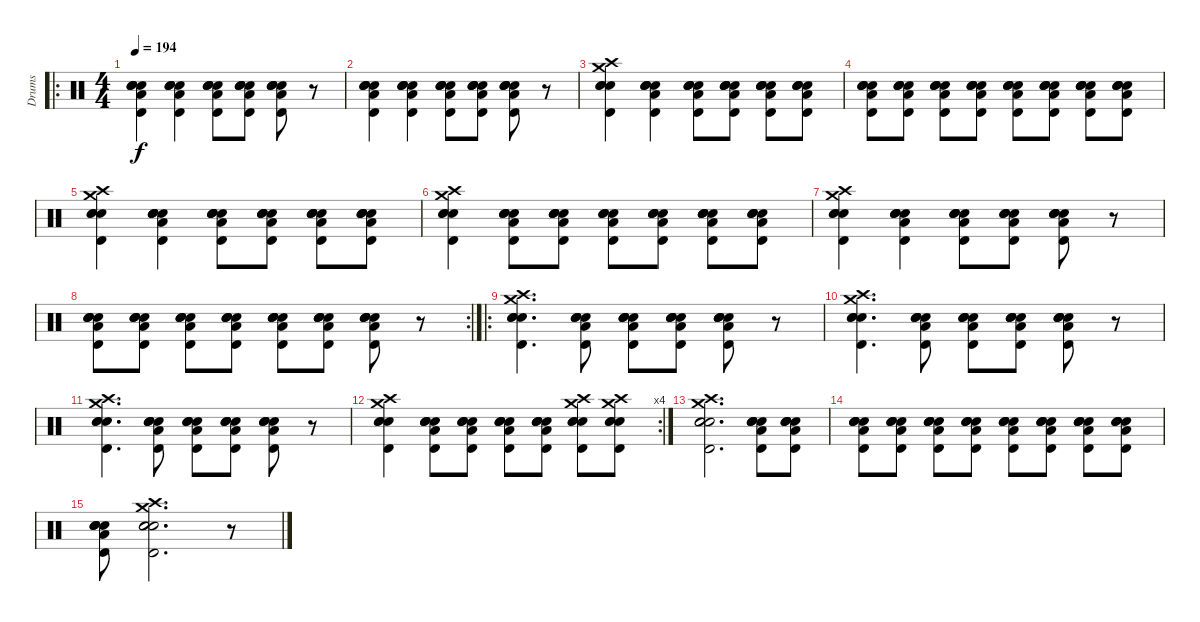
\track ("Drums" "Drums") {instrument percussion}
\staff {score}
\articulation defaults
\ro
\ts (4 4)
\tempo 194
\clef neutral
\ks c
("Snare (hit) 2" "Snare (hit) 2" "Timbale high (hit)" "Snare (hit) 2" "Snare (hit) 2" "Low Floor Tom (hit)").4{dy f} ("Snare (hit) 2" "Snare (hit) 2" "Timbale high (hit)" "Snare (hit) 2" "Snare (hit) 2" "Low Floor Tom (hit)").4 ("Snare (hit) 2" "Snare (hit) 2" "Timbale high (hit)" "Snare (hit) 2" "Snare (hit) 2" "Low Floor Tom (hit)").8 ("Snare (hit) 2" "Snare (hit) 2" "Timbale high (hit)" "Snare (hit) 2" "Snare (hit) 2" "Low Floor Tom (hit)").8 ("Snare (hit) 2" "Snare (hit) 2" "Timbale high (hit)" "Snare (hit) 2" "Snare (hit) 2" "Low Floor Tom (hit)").8 r.8 |
("Snare (hit) 2" "Snare (hit) 2" "Timbale high (hit)" "Snare (hit) 2" "Snare (hit) 2" "Low Floor Tom (hit)").4 ("Snare (hit) 2" "Snare (hit) 2" "Timbale high (hit)" "Snare (hit) 2" "Snare (hit) 2" "Low Floor Tom (hit)").4 ("Snare (hit) 2" "Snare (hit) 2" "Timbale high (hit)" "Snare (hit) 2" "Snare (hit) 2" "Low Floor Tom (hit)").8 ("Snare (hit) 2" "Snare (hit) 2" "Timbale high (hit)" "Snare (hit) 2" "Snare (hit) 2" "Low Floor Tom (hit)").8 ("Snare (hit) 2" "Snare (hit) 2" "Timbale high (hit)" "Snare (hit) 2" "Snare (hit) 2" "Low Floor Tom (hit)").8 r.8 |
("Snare (hit) 2" "Snare (hit) 2" "Timbale high (hit)" "Snare (hit) 2" "Crash medium (hit)" "Crash high (hit)").4 ("Snare (hit) 2" "Snare (hit) 2" "Timbale high (hit)" "Snare (hit) 2" "Snare (hit) 2" "Low Floor Tom (hit)").4 ("Snare (hit) 2" "Snare (hit) 2" "Timbale high (hit)" "Snare (hit) 2" "Snare (hit) 2" "Low Floor Tom (hit)").8 ("Snare (hit) 2" "Snare (hit) 2" "Timbale high (hit)" "Snare (hit) 2" "Snare (hit) 2" "Low Floor Tom (hit)").8 ("Snare (hit) 2" "Snare (hit) 2" "Timbale high (hit)" "Snare (hit) 2" "Snare (hit) 2" "Low Floor Tom (hit)").8 ("Snare (hit) 2" "Snare (hit) 2" "Timbale high (hit)" "Snare (hit) 2" "Snare (hit) 2" "Low Floor Tom (hit)").8 |
("Snare (hit) 2" "Snare (hit) 2" "Timbale high (hit)" "Snare (hit) 2" "Snare (hit) 2" "Low Floor Tom (hit)").8 ("Snare (hit) 2" "Snare (hit) 2" "Timbale high (hit)" "Snare (hit) 2" "Snare (hit) 2" "Low Floor Tom (hit)").8 ("Snare (hit) 2" "Snare (hit) 2" "Timbale high (hit)" "Snare (hit) 2" "Snare (hit) 2" "Low Floor Tom (hit)").8 ("Snare (hit) 2" "Snare (hit) 2" "Timbale high (hit)" "Snare (hit) 2" "Snare (hit) 2" "Low Floor Tom (hit)").8 ("Snare (hit) 2" "Snare (hit) 2" "Timbale high (hit)" "Snare (hit) 2" "Snare (hit) 2" "Low Floor Tom (hit)").8 ("Snare (hit) 2" "Snare (hit) 2" "Timbale high (hit)" "Snare (hit) 2" "Snare (hit) 2" "Low Floor Tom (hit)").8 ("Snare (hit) 2" "Snare (hit) 2" "Timbale high (hit)" "Snare (hit) 2" "Snare (hit) 2" "Low Floor Tom (hit)").8 ("Snare (hit) 2" "Snare (hit) 2" "Timbale high (hit)" "Snare (hit) 2" "Snare (hit) 2" "Low Floor Tom (hit)").8 |
("Snare (hit) 2" "Snare (hit) 2" "Timbale high (hit)" "Snare (hit) 2" "Crash medium (hit)" "Crash high (hit)").4 ("Snare (hit) 2" "Snare (hit) 2" "Timbale high (hit)" "Snare (hit) 2" "Snare (hit) 2" "Low Floor Tom (hit)").4 ("Snare (hit) 2" "Snare (hit) 2" "Timbale high (hit)" "Snare (hit) 2" "Snare (hit) 2" "Low Floor Tom (hit)").8 ("Snare (hit) 2" "Snare (hit) 2" "Timbale high (hit)" "Snare (hit) 2" "Snare (hit) 2" "Low Floor Tom (hit)").8 ("Snare (hit) 2" "Snare (hit) 2" "Timbale high (hit)" "Snare (hit) 2" "Snare (hit) 2" "Low Floor Tom (hit)").8 ("Snare (hit) 2" "Snare (hit) 2" "Timbale high (hit)" "Snare (hit) 2" "Snare (hit) 2" "Low Floor Tom (hit)").8 |
("Snare (hit) 2" "Snare (hit) 2" "Timbale high (hit)" "Snare (hit) 2" "Crash medium (hit)" "Crash high (hit)").4 ("Snare (hit) 2" "Snare (hit) 2" "Timbale high (hit)" "Snare (hit) 2" "Snare (hit) 2" "Low Floor Tom (hit)").8 ("Snare (hit) 2" "Snare (hit) 2" "Timbale high (hit)" "Snare (hit) 2" "Snare (hit) 2" "Low Floor Tom (hit)").8 ("Snare (hit) 2" "Snare (hit) 2" "Timbale high (hit)" "Snare (hit) 2" "Snare (hit) 2" "Low Floor Tom (hit)").8 ("Snare (hit) 2" "Snare (hit) 2" "Timbale high (hit)" "Snare (hit) 2" "Snare (hit) 2" "Low Floor Tom (hit)").8 ("Snare (hit) 2" "Snare (hit) 2" "Timbale high (hit)" "Snare (hit) 2" "Snare (hit) 2" "Low Floor Tom (hit)").8 ("Snare (hit) 2" "Snare (hit) 2" "Timbale high (hit)" "Snare (hit) 2" "Snare (hit) 2" "Low Floor Tom (hit)").8 |
("Snare (hit) 2" "Snare (hit) 2" "Timbale high (hit)" "Snare (hit) 2" "Crash medium (hit)" "Crash high (hit)").4 ("Snare (hit) 2" "Snare (hit) 2" "Timbale high (hit)" "Snare (hit) 2" "Snare (hit) 2" "Low Floor Tom (hit)").4 ("Snare (hit) 2" "Snare (hit) 2" "Timbale high (hit)" "Snare (hit) 2" "Snare (hit) 2" "Low Floor Tom (hit)").8 ("Snare (hit) 2" "Snare (hit) 2" "Timbale high (hit)" "Snare (hit) 2" "Snare (hit) 2" "Low Floor Tom (hit)").8 ("Snare (hit) 2" "Snare (hit) 2" "Timbale high (hit)" "Snare (hit) 2" "Snare (hit) 2" "Low Floor Tom (hit)").8 r.8 |
\rc 2
("Snare (hit) 2" "Snare (hit) 2" "Timbale high (hit)" "Snare (hit) 2" "Snare (hit) 2" "Low Floor Tom (hit)").8 ("Snare (hit) 2" "Snare (hit) 2" "Timbale high (hit)" "Snare (hit) 2" "Snare (hit) 2" "Low Floor Tom (hit)").8 ("Snare (hit) 2" "Snare (hit) 2" "Timbale high (hit)" "Snare (hit) 2" "Snare (hit) 2" "Low Floor Tom (hit)").8 ("Snare (hit) 2" "Snare (hit) 2" "Timbale high (hit)" "Snare (hit) 2" "Snare (hit) 2" "Low Floor Tom (hit)").8 ("Snare (hit) 2" "Snare (hit) 2" "Timbale high (hit)" "Snare (hit) 2" "Snare (hit) 2" "Low Floor Tom (hit)").8 ("Snare (hit) 2" "Snare (hit) 2" "Timbale high (hit)" "Snare (hit) 2" "Snare (hit) 2" "Low Floor Tom (hit)").8 ("Snare (hit) 2" "Snare (hit) 2" "Timbale high (hit)" "Snare (hit) 2" "Snare (hit) 2" "Low Floor Tom (hit)").8 r.8 |
\ro
("Snare (hit) 2" "Snare (hit) 2" "Timbale high (hit)" "Snare (hit) 2" "Crash medium (hit)" "Crash high (hit)").4{d} ("Snare (hit) 2" "Snare (hit) 2" "Timbale high (hit)" "Snare (hit) 2" "Snare (hit) 2" "Low Floor Tom (hit)").8 ("Snare (hit) 2" "Snare (hit) 2" "Timbale high (hit)" "Snare (hit) 2" "Snare (hit) 2" "Low Floor Tom (hit)").8 ("Snare (hit) 2" "Snare (hit) 2" "Timbale high (hit)" "Snare (hit) 2" "Snare (hit) 2" "Low Floor Tom (hit)").8 ("Snare (hit) 2" "Snare (hit) 2" "Timbale high (hit)" "Snare (hit) 2" "Snare (hit) 2" "Low Floor Tom (hit)").8 r.8 |
("Snare (hit) 2" "Snare (hit) 2" "Timbale high (hit)" "Snare (hit) 2" "Crash medium (hit)" "Crash high (hit)").4{d} ("Snare (hit) 2" "Snare (hit) 2" "Timbale high (hit)" "Snare (hit) 2" "Snare (hit) 2" "Low Floor Tom (hit)").8 ("Snare (hit) 2" "Snare (hit) 2" "Timbale high (hit)" "Snare (hit) 2" "Snare (hit) 2" "Low Floor Tom (hit)").8 ("Snare (hit) 2" "Snare (hit) 2" "Timbale high (hit)" "Snare (hit) 2" "Snare (hit) 2" "Low Floor Tom (hit)").8 ("Snare (hit) 2" "Snare (hit) 2" "Timbale high (hit)" "Snare (hit) 2" "Snare (hit) 2" "Low Floor Tom (hit)").8 r.8 |
("Snare (hit) 2" "Snare (hit) 2" "Timbale high (hit)" "Snare (hit) 2" "Crash medium (hit)" "Crash high (hit)").4{d} ("Snare (hit) 2" "Snare (hit) 2" "Timbale high (hit)" "Snare (hit) 2" "Snare (hit) 2" "Low Floor Tom (hit)").8 ("Snare (hit) 2" "Snare (hit) 2" "Timbale high (hit)" "Snare (hit) 2" "Snare (hit) 2" "Low Floor Tom (hit)").8 ("Snare (hit) 2" "Snare (hit) 2" "Timbale high (hit)" "Snare (hit) 2" "Snare (hit) 2" "Low Floor Tom (hit)").8 ("Snare (hit) 2" "Snare (hit) 2" "Timbale high (hit)" "Snare (hit) 2" "Snare (hit) 2" "Low Floor Tom (hit)").8 r.8 |
\rc 4
("Snare (hit) 2" "Snare (hit) 2" "Timbale high (hit)" "Snare (hit) 2" "Crash medium (hit)" "Crash high (hit)").4 ("Snare (hit) 2" "Snare (hit) 2" "Timbale high (hit)" "Snare (hit) 2" "Snare (hit) 2" "Low Floor Tom (hit)").8 ("Snare (hit) 2" "Snare (hit) 2" "Timbale high (hit)" "Snare (hit) 2" "Snare (hit) 2" "Low Floor Tom (hit)").8 ("Snare (hit) 2" "Snare (hit) 2" "Timbale high (hit)" "Snare (hit) 2" "Snare (hit) 2" "Low Floor Tom (hit)").8 ("Snare (hit) 2" "Snare (hit) 2" "Timbale high (hit)" "Snare (hit) 2" "Snare (hit) 2" "Low Floor Tom (hit)").8 ("Snare (hit) 2" "Snare (hit) 2" "Timbale high (hit)" "Snare (hit) 2" "Crash medium (hit)" "Crash high (hit)").8 ("Snare (hit) 2" "Snare (hit) 2" "Timbale high (hit)" "Snare (hit) 2" "Crash medium (hit)" "Crash high (hit)").8 |
("Snare (hit) 2" "Snare (hit) 2" "Timbale high (hit)" "Snare (hit) 2" "Crash medium (hit)" "Crash high (hit)").2{d} ("Snare (hit) 2" "Snare (hit) 2" "Timbale high (hit)" "Snare (hit) 2" "Snare (hit) 2" "Low Floor Tom (hit)").8 ("Snare (hit) 2" "Snare (hit) 2" "Timbale high (hit)" "Snare (hit) 2" "Snare (hit) 2" "Low Floor Tom (hit)").8 |
("Snare (hit) 2" "Snare (hit) 2" "Timbale high (hit)" "Snare (hit) 2" "Snare (hit) 2" "Low Floor Tom (hit)").8 ("Snare (hit) 2" "Snare (hit) 2" "Timbale high (hit)" "Snare (hit) 2" "Snare (hit) 2" "Low Floor Tom (hit)").8 ("Snare (hit) 2" "Snare (hit) 2" "Timbale high (hit)" "Snare (hit) 2" "Snare (hit) 2" "Low Floor Tom (hit)").8 ("Snare (hit) 2" "Snare (hit) 2" "Timbale high (hit)" "Snare (hit) 2" "Snare (hit) 2" "Low Floor Tom (hit)").8 ("Snare (hit) 2" "Snare (hit) 2" "Timbale high (hit)" "Snare (hit) 2" "Snare (hit) 2" "Low Floor Tom (hit)").8 ("Snare (hit) 2" "Snare (hit) 2" "Timbale high (hit)" "Snare (hit) 2" "Snare (hit) 2" "Low Floor Tom (hit)").8 ("Snare (hit) 2" "Snare (hit) 2" "Timbale high (hit)" "Snare (hit) 2" "Snare (hit) 2" "Low Floor Tom (hit)").8 ("Snare (hit) 2" "Snare (hit) 2" "Timbale high (hit)" "Snare (hit) 2" "Snare (hit) 2" "Low Floor Tom (hit)").8 |
("Snare (hit) 2" "Snare (hit) 2" "Timbale high (hit)" "Snare (hit) 2" "Snare (hit) 2" "Low Floor Tom (hit)").8 ("Snare (hit) 2" "Snare (hit) 2" "Timbale high (hit)" "Snare (hit) 2" "Crash medium (hit)" "Crash high (hit)").2{d} r.8
